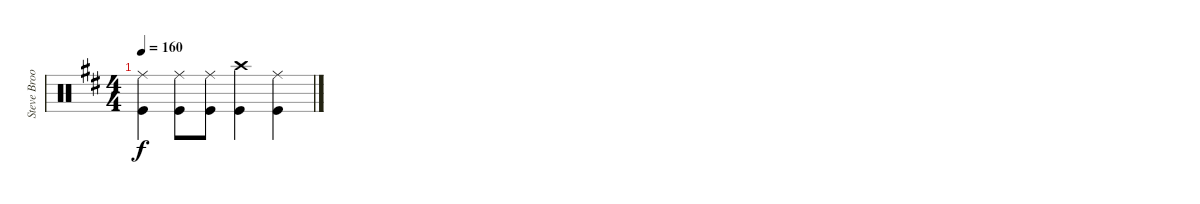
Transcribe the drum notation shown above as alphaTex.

\track ("Steve Brookins Drums" "Steve Broo") {instrument percussion}
\staff {score}
\articulation defaults
\ts (4 4)
\tempo 160
\clef neutral
\ks d
("Ride (middle)" "Kick (hit)").4{dy f} ("Ride (middle)" "Kick (hit)").8 ("Ride (middle)" "Kick (hit)").8 ("Crash high (hit)" "Kick (hit)").4 ("Ride (middle)" "Kick (hit)").4
